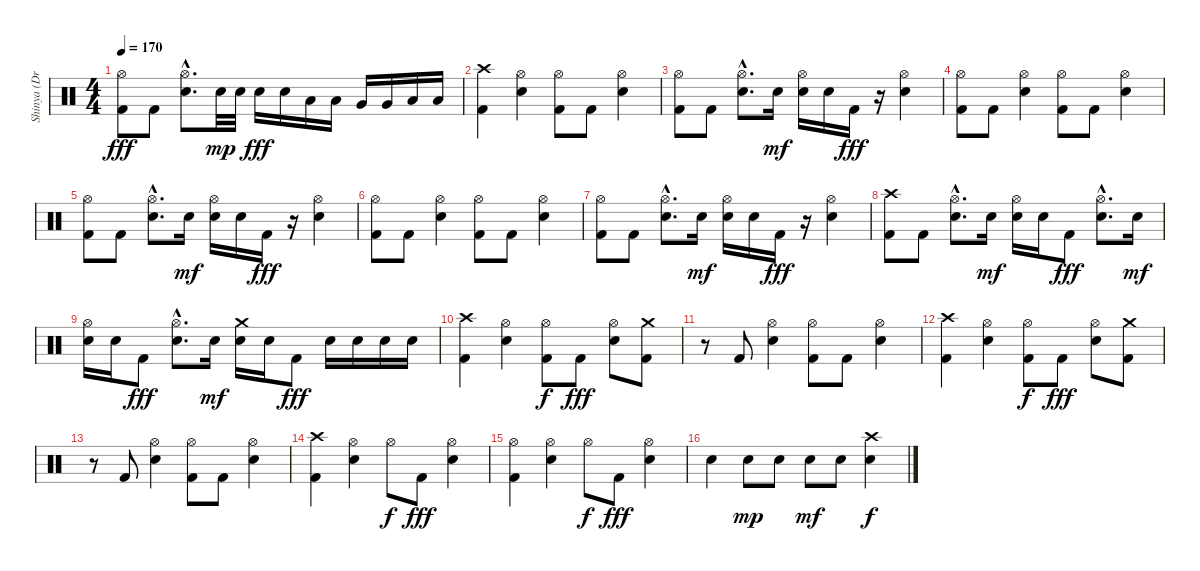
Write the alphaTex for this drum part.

\track ("Shinya (Drums)" "Shinya (Dr") {instrument percussion}
\staff {score}
\articulation defaults
\ts (4 4)
\tempo 170
\clef neutral
\ks c
("Hi-Hat (open)" "Kick (hit) 2").8{dy fff} "Kick (hit) 2".8 ("Hi-Hat (open)"{hac} "Electric Snare (hit)"{hac}).8{d} "Electric Snare (hit)".32{dy mp} "Electric Snare (hit)".32 "Electric Snare (hit)".16{dy fff} "Electric Snare (hit)".16 "Low Tom (hit)".16 "Low Tom (hit)".16 "Very Low Tom (hit)".16 "Very Low Tom (hit)".16 "Low Floor Tom (hit)".16 "Low Floor Tom (hit)".16 |
("Crash high (hit)" "Kick (hit) 2").4 ("Hi-Hat (open)" "Electric Snare (hit)").4 ("Hi-Hat (open)" "Kick (hit) 2").8 "Kick (hit) 2".8 ("Hi-Hat (open)" "Electric Snare (hit)").4 |
("Hi-Hat (open)" "Kick (hit) 2").8 "Kick (hit) 2".8 ("Hi-Hat (open)"{hac} "Electric Snare (hit)"{hac}).8{d} "Electric Snare (hit)".16{dy mf} ("Hi-Hat (open)" "Electric Snare (hit)").16 "Electric Snare (hit)".16 "Kick (hit) 2".16{dy fff} r.16 ("Hi-Hat (open)" "Electric Snare (hit)").4 |
("Hi-Hat (open)" "Kick (hit) 2").8 "Kick (hit) 2".8 ("Hi-Hat (open)" "Electric Snare (hit)").4 ("Hi-Hat (open)" "Kick (hit) 2").8 "Kick (hit) 2".8 ("Hi-Hat (open)" "Electric Snare (hit)").4 |
("Hi-Hat (open)" "Kick (hit) 2").8 "Kick (hit) 2".8 ("Hi-Hat (open)"{hac} "Electric Snare (hit)"{hac}).8{d} "Electric Snare (hit)".16{dy mf} ("Hi-Hat (open)" "Electric Snare (hit)").16 "Electric Snare (hit)".16 "Kick (hit) 2".16{dy fff} r.16 ("Hi-Hat (open)" "Electric Snare (hit)").4 |
("Hi-Hat (open)" "Kick (hit) 2").8 "Kick (hit) 2".8 ("Hi-Hat (open)" "Electric Snare (hit)").4 ("Hi-Hat (open)" "Kick (hit) 2").8 "Kick (hit) 2".8 ("Hi-Hat (open)" "Electric Snare (hit)").4 |
("Hi-Hat (open)" "Kick (hit) 2").8 "Kick (hit) 2".8 ("Hi-Hat (open)"{hac} "Electric Snare (hit)"{hac}).8{d} "Electric Snare (hit)".16{dy mf} ("Hi-Hat (open)" "Electric Snare (hit)").16 "Electric Snare (hit)".16 "Kick (hit) 2".16{dy fff} r.16 ("Hi-Hat (open)" "Electric Snare (hit)").4 |
("Crash high (hit)" "Kick (hit) 2").8 "Kick (hit) 2".8 ("Hi-Hat (open)"{hac} "Electric Snare (hit)"{hac}).8{d} "Electric Snare (hit)".16{dy mf} ("Hi-Hat (open)" "Electric Snare (hit)").16 "Electric Snare (hit)".16 "Kick (hit) 2".8{dy fff} ("Hi-Hat (open)"{hac} "Electric Snare (hit)"{hac}).8{d} "Electric Snare (hit)".16{dy mf} |
("Hi-Hat (open)" "Electric Snare (hit)").16 "Electric Snare (hit)".16 "Kick (hit) 2".8{dy fff} ("Hi-Hat (open)"{hac} "Electric Snare (hit)"{hac}).8{d} "Electric Snare (hit)".16{dy mf} ("Crash medium (hit)" "Electric Snare (hit)").16 "Electric Snare (hit)".16 "Kick (hit) 2".8{dy fff} "Electric Snare (hit)".16 "Electric Snare (hit)".16 "Electric Snare (hit)".16 "Electric Snare (hit)".16 |
("Crash high (hit)" "Kick (hit) 2").4 ("Hi-Hat (open)" "Electric Snare (hit)").4 ("Hi-Hat (open)" "Kick (hit) 2").8{dy f} "Kick (hit) 2".8{dy fff} ("Hi-Hat (open)" "Electric Snare (hit)").8 ("Crash medium (hit)" "Kick (hit) 2").8 |
r.8 "Kick (hit) 2".8 ("Hi-Hat (open)" "Electric Snare (hit)").4 ("Hi-Hat (open)" "Kick (hit) 2").8 "Kick (hit) 2".8 ("Hi-Hat (open)" "Electric Snare (hit)").4 |
("Crash high (hit)" "Kick (hit) 2").4 ("Hi-Hat (open)" "Electric Snare (hit)").4 ("Hi-Hat (open)" "Kick (hit) 2").8{dy f} "Kick (hit) 2".8{dy fff} ("Hi-Hat (open)" "Electric Snare (hit)").8 ("Crash medium (hit)" "Kick (hit) 2").8 |
r.8 "Kick (hit) 2".8 ("Hi-Hat (open)" "Electric Snare (hit)").4 ("Hi-Hat (open)" "Kick (hit) 2").8 "Kick (hit) 2".8 ("Hi-Hat (open)" "Electric Snare (hit)").4 |
("Crash high (hit)" "Kick (hit) 2").4 ("Hi-Hat (open)" "Electric Snare (hit)").4 "Hi-Hat (open)".8{dy f} "Kick (hit) 2".8{dy fff} ("Hi-Hat (open)" "Electric Snare (hit)").4 |
("Hi-Hat (open)" "Kick (hit) 2").4 ("Hi-Hat (open)" "Electric Snare (hit)").4 "Hi-Hat (open)".8{dy f} "Kick (hit) 2".8{dy fff} ("Hi-Hat (open)" "Electric Snare (hit)").4 |
"Electric Snare (hit)".4 "Electric Snare (hit)".8{dy mp} "Electric Snare (hit)".8 "Electric Snare (hit)".8{dy mf} "Electric Snare (hit)".8 ("Crash high (hit)" "Electric Snare (hit)").4{dy f}
